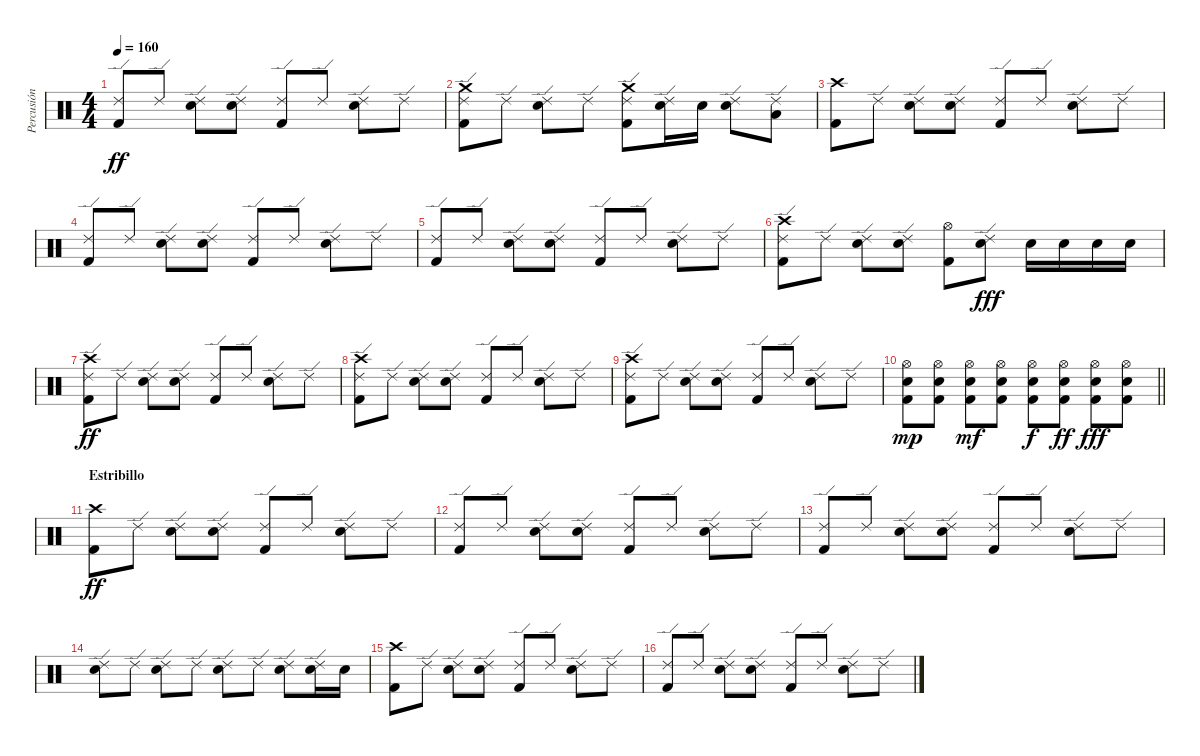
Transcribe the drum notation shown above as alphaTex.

\track ("Percusión" "Percusión") {instrument percussion}
\staff {score}
\articulation defaults
\ts (4 4)
\tempo 160
\clef neutral
\ks c
("Ride (edge) 2" "Kick (hit) 2").8{dy ff} "Ride (edge) 2".8 ("Ride (edge) 2" "Electric Snare (hit)").8 ("Ride (edge) 2" "Electric Snare (hit)").8 ("Ride (edge) 2" "Kick (hit) 2").8 "Ride (edge) 2".8 ("Ride (edge) 2" "Electric Snare (hit)").8 "Ride (edge) 2".8 |
("Ride (edge) 2" "Kick (hit) 2" "Crash medium (hit)").8 "Ride (edge) 2".8 ("Ride (edge) 2" "Electric Snare (hit)").8 "Ride (edge) 2".8 ("Ride (edge) 2" "Kick (hit) 2" "Crash medium (hit)").8 ("Ride (edge) 2" "Electric Snare (hit)").16 "Electric Snare (hit)".16 ("Ride (edge) 2" "Electric Snare (hit)").8 ("Ride (edge) 2" "Low Tom (hit)").8 |
("Crash high (hit)" "Kick (hit) 2").8 "Ride (edge) 2".8 ("Ride (edge) 2" "Electric Snare (hit)").8 ("Ride (edge) 2" "Electric Snare (hit)").8 ("Ride (edge) 2" "Kick (hit) 2").8 "Ride (edge) 2".8 ("Ride (edge) 2" "Electric Snare (hit)").8 "Ride (edge) 2".8 |
("Ride (edge) 2" "Kick (hit) 2").8 "Ride (edge) 2".8 ("Ride (edge) 2" "Electric Snare (hit)").8 ("Ride (edge) 2" "Electric Snare (hit)").8 ("Ride (edge) 2" "Kick (hit) 2").8 "Ride (edge) 2".8 ("Ride (edge) 2" "Electric Snare (hit)").8 "Ride (edge) 2".8 |
("Ride (edge) 2" "Kick (hit) 2").8 "Ride (edge) 2".8 ("Ride (edge) 2" "Electric Snare (hit)").8 ("Ride (edge) 2" "Electric Snare (hit)").8 ("Ride (edge) 2" "Kick (hit) 2").8 "Ride (edge) 2".8 ("Ride (edge) 2" "Electric Snare (hit)").8 "Ride (edge) 2".8 |
("Ride (edge) 2" "Kick (hit) 2" "Crash high (hit)").8 "Ride (edge) 2".8 ("Ride (edge) 2" "Electric Snare (hit)").8 ("Ride (edge) 2" "Electric Snare (hit)").8 ("Hi-Hat (open)" "Kick (hit) 2").8 ("Ride (edge) 2" "Electric Snare (hit)").8{dy fff} "Electric Snare (hit)".16 "Electric Snare (hit)".16 "Electric Snare (hit)".16 "Electric Snare (hit)".16 |
("Ride (edge) 2" "Kick (hit) 2" "Crash high (hit)").8{dy ff} "Ride (edge) 2".8 ("Ride (edge) 2" "Electric Snare (hit)").8 ("Ride (edge) 2" "Electric Snare (hit)").8 ("Ride (edge) 2" "Kick (hit) 2").8 "Ride (edge) 2".8 ("Ride (edge) 2" "Electric Snare (hit)").8 "Ride (edge) 2".8 |
("Ride (edge) 2" "Kick (hit) 2" "Crash high (hit)").8 "Ride (edge) 2".8 ("Ride (edge) 2" "Electric Snare (hit)").8 ("Ride (edge) 2" "Electric Snare (hit)").8 ("Ride (edge) 2" "Kick (hit) 2").8 "Ride (edge) 2".8 ("Ride (edge) 2" "Electric Snare (hit)").8 "Ride (edge) 2".8 |
("Ride (edge) 2" "Kick (hit) 2" "Crash high (hit)").8 "Ride (edge) 2".8 ("Ride (edge) 2" "Electric Snare (hit)").8 ("Ride (edge) 2" "Electric Snare (hit)").8 ("Ride (edge) 2" "Kick (hit) 2").8 "Ride (edge) 2".8 ("Ride (edge) 2" "Electric Snare (hit)").8 "Ride (edge) 2".8 |
\barLineRight lightlight
("Electric Snare (hit)" "Hi-Hat (open)" "Kick (hit) 2").8{dy mp} ("Electric Snare (hit)" "Hi-Hat (open)" "Kick (hit) 2").8 ("Electric Snare (hit)" "Hi-Hat (open)" "Kick (hit) 2").8{dy mf} ("Electric Snare (hit)" "Hi-Hat (open)" "Kick (hit) 2").8 ("Electric Snare (hit)" "Hi-Hat (open)" "Kick (hit) 2").8{dy f} ("Electric Snare (hit)" "Hi-Hat (open)" "Kick (hit) 2").8{dy ff} ("Electric Snare (hit)" "Hi-Hat (open)" "Kick (hit) 2").8{dy fff} ("Electric Snare (hit)" "Hi-Hat (open)" "Kick (hit) 2").8 |
\section ("" "Estribillo")
("Crash high (hit)" "Kick (hit) 2").8{dy ff} "Ride (edge) 2".8 ("Ride (edge) 2" "Electric Snare (hit)").8 ("Ride (edge) 2" "Electric Snare (hit)").8 ("Ride (edge) 2" "Kick (hit) 2").8 "Ride (edge) 2".8 ("Ride (edge) 2" "Electric Snare (hit)").8 "Ride (edge) 2".8 |
("Ride (edge) 2" "Kick (hit) 2").8 "Ride (edge) 2".8 ("Ride (edge) 2" "Electric Snare (hit)").8 ("Ride (edge) 2" "Electric Snare (hit)").8 ("Ride (edge) 2" "Kick (hit) 2").8 "Ride (edge) 2".8 ("Ride (edge) 2" "Electric Snare (hit)").8 "Ride (edge) 2".8 |
("Ride (edge) 2" "Kick (hit) 2").8 "Ride (edge) 2".8 ("Ride (edge) 2" "Electric Snare (hit)").8 ("Ride (edge) 2" "Electric Snare (hit)").8 ("Ride (edge) 2" "Kick (hit) 2").8 "Ride (edge) 2".8 ("Ride (edge) 2" "Electric Snare (hit)").8 "Ride (edge) 2".8 |
("Ride (edge) 2" "Electric Snare (hit)").8 "Ride (edge) 2".8 ("Ride (edge) 2" "Electric Snare (hit)").8 "Ride (edge) 2".8 ("Ride (edge) 2" "Electric Snare (hit)").8 "Ride (edge) 2".8 ("Ride (edge) 2" "Electric Snare (hit)").8 ("Ride (edge) 2" "Electric Snare (hit)").16 "Electric Snare (hit)".16 |
("Crash high (hit)" "Kick (hit) 2").8 "Ride (edge) 2".8 ("Ride (edge) 2" "Electric Snare (hit)").8 ("Ride (edge) 2" "Electric Snare (hit)").8 ("Ride (edge) 2" "Kick (hit) 2").8 "Ride (edge) 2".8 ("Ride (edge) 2" "Electric Snare (hit)").8 "Ride (edge) 2".8 |
("Ride (edge) 2" "Kick (hit) 2").8 "Ride (edge) 2".8 ("Ride (edge) 2" "Electric Snare (hit)").8 ("Ride (edge) 2" "Electric Snare (hit)").8 ("Ride (edge) 2" "Kick (hit) 2").8 "Ride (edge) 2".8 ("Ride (edge) 2" "Electric Snare (hit)").8 "Ride (edge) 2".8
